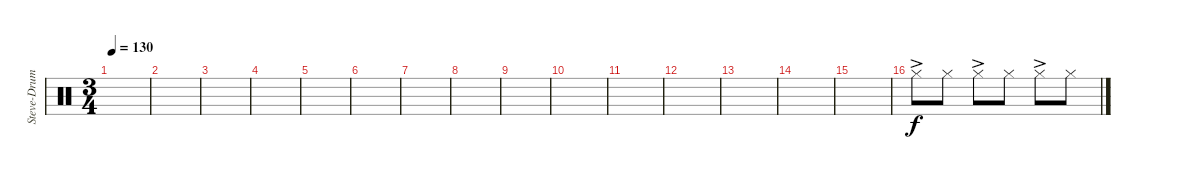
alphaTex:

\track ("Steve-Drums" "Steve-Drum") {instrument percussion}
\staff {score}
\articulation defaults
\ts (3 4)
\tempo 130
\clef neutral
\ks c
|
|
|
|
|
|
|
|
|
|
|
|
|
|
|
"Hi-Hat (closed)"{ac}.8 "Hi-Hat (closed)".8 "Hi-Hat (closed)"{ac}.8 "Hi-Hat (closed)".8 "Hi-Hat (closed)"{ac}.8 "Hi-Hat (closed)".8
